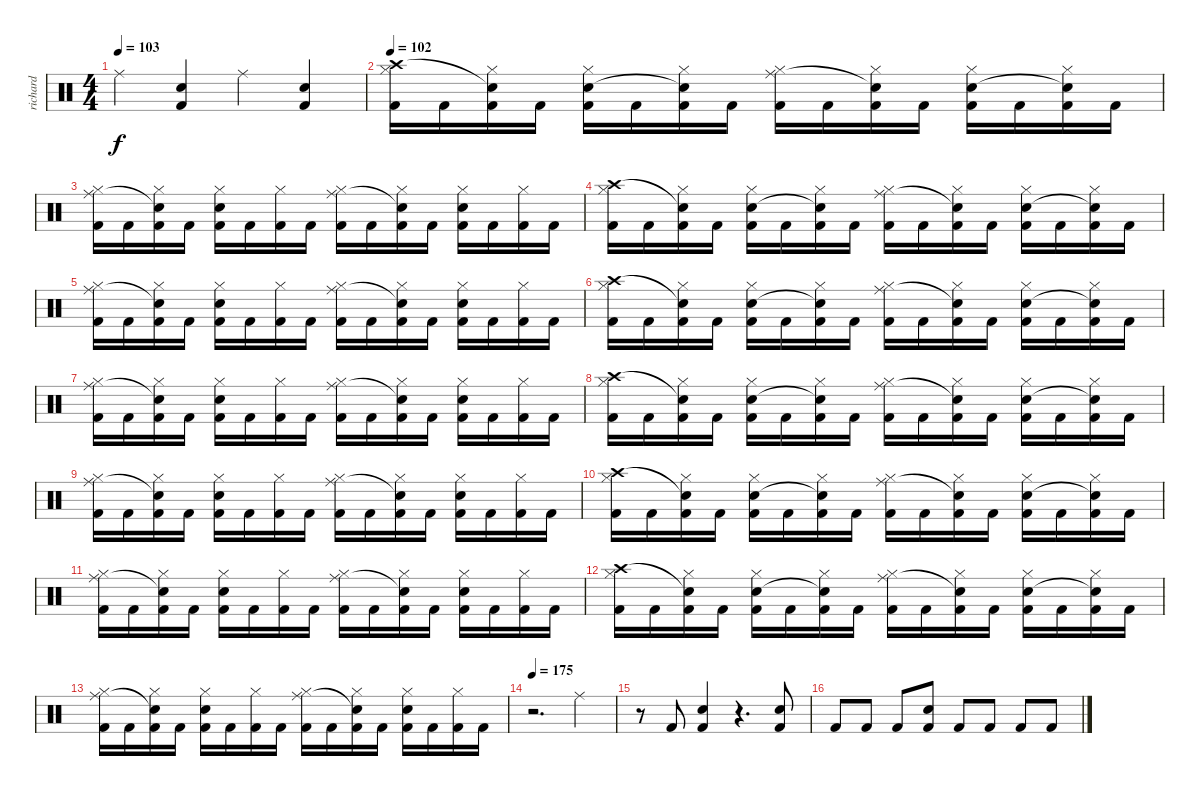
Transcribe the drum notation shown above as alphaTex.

\track ("richard" "richard") {instrument percussion}
\staff {score}
\articulation defaults
\ts (4 4)
\tempo 103
\clef neutral
\ks c "Ride (middle)".4{dy f}
("Snare (hit) 2" "Kick (hit) 2").4 "Ride (middle)".4 ("Snare (hit) 2" "Kick (hit) 2").4 |
\tempo 102
("Hi-Hat (closed)" "Crash high (hit)" "Kick (hit) 2").16 "Kick (hit) 2".16 ("Hi-Hat (closed)" "Snare (hit)"{t} "Kick (hit) 2").16 "Kick (hit) 2".16 ("Hi-Hat (closed)" "Snare (hit) 2" "Kick (hit) 2").16 "Kick (hit) 2".16 ("Hi-Hat (closed)" "Snare (hit)"{t} "Kick (hit) 2").16 "Kick (hit) 2".16 ("Hi-Hat (closed)" "Ride (middle)" "Kick (hit) 2").16 "Kick (hit) 2".16 ("Hi-Hat (closed)" "Snare (hit)"{t} "Kick (hit) 2").16 "Kick (hit) 2".16 ("Hi-Hat (closed)" "Snare (hit) 2" "Kick (hit) 2").16 "Kick (hit) 2".16 ("Hi-Hat (closed)" "Snare (hit)"{t} "Kick (hit) 2").16 "Kick (hit) 2".16 |
("Hi-Hat (closed)" "Ride (middle)" "Kick (hit) 2").16 "Kick (hit) 2".16 ("Hi-Hat (closed)" "Snare (hit)"{t} "Kick (hit) 2").16 "Kick (hit) 2".16 ("Hi-Hat (closed)" "Snare (hit) 2" "Kick (hit) 2").16 "Kick (hit) 2".16 ("Hi-Hat (closed)" "Kick (hit) 2").16 "Kick (hit) 2".16 ("Hi-Hat (closed)" "Ride (middle)" "Kick (hit) 2").16 "Kick (hit) 2".16 ("Hi-Hat (closed)" "Snare (hit)"{t} "Kick (hit) 2").16 "Kick (hit) 2".16 ("Hi-Hat (closed)" "Snare (hit) 2" "Kick (hit) 2").16 "Kick (hit) 2".16 ("Hi-Hat (closed)" "Kick (hit) 2").16 "Kick (hit) 2".16 |
("Hi-Hat (closed)" "Crash high (hit)" "Kick (hit) 2").16 "Kick (hit) 2".16 ("Hi-Hat (closed)" "Snare (hit)"{t} "Kick (hit) 2").16 "Kick (hit) 2".16 ("Hi-Hat (closed)" "Snare (hit) 2" "Kick (hit) 2").16 "Kick (hit) 2".16 ("Hi-Hat (closed)" "Snare (hit)"{t} "Kick (hit) 2").16 "Kick (hit) 2".16 ("Hi-Hat (closed)" "Ride (middle)" "Kick (hit) 2").16 "Kick (hit) 2".16 ("Hi-Hat (closed)" "Snare (hit)"{t} "Kick (hit) 2").16 "Kick (hit) 2".16 ("Hi-Hat (closed)" "Snare (hit) 2" "Kick (hit) 2").16 "Kick (hit) 2".16 ("Hi-Hat (closed)" "Snare (hit)"{t} "Kick (hit) 2").16 "Kick (hit) 2".16 |
("Hi-Hat (closed)" "Ride (middle)" "Kick (hit) 2").16 "Kick (hit) 2".16 ("Hi-Hat (closed)" "Snare (hit)"{t} "Kick (hit) 2").16 "Kick (hit) 2".16 ("Hi-Hat (closed)" "Snare (hit) 2" "Kick (hit) 2").16 "Kick (hit) 2".16 ("Hi-Hat (closed)" "Kick (hit) 2").16 "Kick (hit) 2".16 ("Hi-Hat (closed)" "Ride (middle)" "Kick (hit) 2").16 "Kick (hit) 2".16 ("Hi-Hat (closed)" "Snare (hit)"{t} "Kick (hit) 2").16 "Kick (hit) 2".16 ("Hi-Hat (closed)" "Snare (hit) 2" "Kick (hit) 2").16 "Kick (hit) 2".16 ("Hi-Hat (closed)" "Kick (hit) 2").16 "Kick (hit) 2".16 |
("Hi-Hat (closed)" "Crash high (hit)" "Kick (hit) 2").16 "Kick (hit) 2".16 ("Hi-Hat (closed)" "Snare (hit)"{t} "Kick (hit) 2").16 "Kick (hit) 2".16 ("Hi-Hat (closed)" "Snare (hit) 2" "Kick (hit) 2").16 "Kick (hit) 2".16 ("Hi-Hat (closed)" "Snare (hit)"{t} "Kick (hit) 2").16 "Kick (hit) 2".16 ("Hi-Hat (closed)" "Ride (middle)" "Kick (hit) 2").16 "Kick (hit) 2".16 ("Hi-Hat (closed)" "Snare (hit)"{t} "Kick (hit) 2").16 "Kick (hit) 2".16 ("Hi-Hat (closed)" "Snare (hit) 2" "Kick (hit) 2").16 "Kick (hit) 2".16 ("Hi-Hat (closed)" "Snare (hit)"{t} "Kick (hit) 2").16 "Kick (hit) 2".16 |
("Hi-Hat (closed)" "Ride (middle)" "Kick (hit) 2").16 "Kick (hit) 2".16 ("Hi-Hat (closed)" "Snare (hit)"{t} "Kick (hit) 2").16 "Kick (hit) 2".16 ("Hi-Hat (closed)" "Snare (hit) 2" "Kick (hit) 2").16 "Kick (hit) 2".16 ("Hi-Hat (closed)" "Kick (hit) 2").16 "Kick (hit) 2".16 ("Hi-Hat (closed)" "Ride (middle)" "Kick (hit) 2").16 "Kick (hit) 2".16 ("Hi-Hat (closed)" "Snare (hit)"{t} "Kick (hit) 2").16 "Kick (hit) 2".16 ("Hi-Hat (closed)" "Snare (hit) 2" "Kick (hit) 2").16 "Kick (hit) 2".16 ("Hi-Hat (closed)" "Kick (hit) 2").16 "Kick (hit) 2".16 |
("Hi-Hat (closed)" "Crash high (hit)" "Kick (hit) 2").16 "Kick (hit) 2".16 ("Hi-Hat (closed)" "Snare (hit)"{t} "Kick (hit) 2").16 "Kick (hit) 2".16 ("Hi-Hat (closed)" "Snare (hit) 2" "Kick (hit) 2").16 "Kick (hit) 2".16 ("Hi-Hat (closed)" "Snare (hit)"{t} "Kick (hit) 2").16 "Kick (hit) 2".16 ("Hi-Hat (closed)" "Ride (middle)" "Kick (hit) 2").16 "Kick (hit) 2".16 ("Hi-Hat (closed)" "Snare (hit)"{t} "Kick (hit) 2").16 "Kick (hit) 2".16 ("Hi-Hat (closed)" "Snare (hit) 2" "Kick (hit) 2").16 "Kick (hit) 2".16 ("Hi-Hat (closed)" "Snare (hit)"{t} "Kick (hit) 2").16 "Kick (hit) 2".16 |
("Hi-Hat (closed)" "Ride (middle)" "Kick (hit) 2").16 "Kick (hit) 2".16 ("Hi-Hat (closed)" "Snare (hit)"{t} "Kick (hit) 2").16 "Kick (hit) 2".16 ("Hi-Hat (closed)" "Snare (hit) 2" "Kick (hit) 2").16 "Kick (hit) 2".16 ("Hi-Hat (closed)" "Kick (hit) 2").16 "Kick (hit) 2".16 ("Hi-Hat (closed)" "Ride (middle)" "Kick (hit) 2").16 "Kick (hit) 2".16 ("Hi-Hat (closed)" "Snare (hit)"{t} "Kick (hit) 2").16 "Kick (hit) 2".16 ("Hi-Hat (closed)" "Snare (hit) 2" "Kick (hit) 2").16 "Kick (hit) 2".16 ("Hi-Hat (closed)" "Kick (hit) 2").16 "Kick (hit) 2".16 |
("Hi-Hat (closed)" "Crash high (hit)" "Kick (hit) 2").16 "Kick (hit) 2".16 ("Hi-Hat (closed)" "Snare (hit)"{t} "Kick (hit) 2").16 "Kick (hit) 2".16 ("Hi-Hat (closed)" "Snare (hit) 2" "Kick (hit) 2").16 "Kick (hit) 2".16 ("Hi-Hat (closed)" "Snare (hit)"{t} "Kick (hit) 2").16 "Kick (hit) 2".16 ("Hi-Hat (closed)" "Ride (middle)" "Kick (hit) 2").16 "Kick (hit) 2".16 ("Hi-Hat (closed)" "Snare (hit)"{t} "Kick (hit) 2").16 "Kick (hit) 2".16 ("Hi-Hat (closed)" "Snare (hit) 2" "Kick (hit) 2").16 "Kick (hit) 2".16 ("Hi-Hat (closed)" "Snare (hit)"{t} "Kick (hit) 2").16 "Kick (hit) 2".16 |
("Hi-Hat (closed)" "Ride (middle)" "Kick (hit) 2").16 "Kick (hit) 2".16 ("Hi-Hat (closed)" "Snare (hit)"{t} "Kick (hit) 2").16 "Kick (hit) 2".16 ("Hi-Hat (closed)" "Snare (hit) 2" "Kick (hit) 2").16 "Kick (hit) 2".16 ("Hi-Hat (closed)" "Kick (hit) 2").16 "Kick (hit) 2".16 ("Hi-Hat (closed)" "Ride (middle)" "Kick (hit) 2").16 "Kick (hit) 2".16 ("Hi-Hat (closed)" "Snare (hit)"{t} "Kick (hit) 2").16 "Kick (hit) 2".16 ("Hi-Hat (closed)" "Snare (hit) 2" "Kick (hit) 2").16 "Kick (hit) 2".16 ("Hi-Hat (closed)" "Kick (hit) 2").16 "Kick (hit) 2".16 |
("Hi-Hat (closed)" "Crash high (hit)" "Kick (hit) 2").16 "Kick (hit) 2".16 ("Hi-Hat (closed)" "Snare (hit)"{t} "Kick (hit) 2").16 "Kick (hit) 2".16 ("Hi-Hat (closed)" "Snare (hit) 2" "Kick (hit) 2").16 "Kick (hit) 2".16 ("Hi-Hat (closed)" "Snare (hit)"{t} "Kick (hit) 2").16 "Kick (hit) 2".16 ("Hi-Hat (closed)" "Ride (middle)" "Kick (hit) 2").16 "Kick (hit) 2".16 ("Hi-Hat (closed)" "Snare (hit)"{t} "Kick (hit) 2").16 "Kick (hit) 2".16 ("Hi-Hat (closed)" "Snare (hit) 2" "Kick (hit) 2").16 "Kick (hit) 2".16 ("Hi-Hat (closed)" "Snare (hit)"{t} "Kick (hit) 2").16 "Kick (hit) 2".16 |
("Hi-Hat (closed)" "Ride (middle)" "Kick (hit) 2").16 "Kick (hit) 2".16 ("Hi-Hat (closed)" "Snare (hit)"{t} "Kick (hit) 2").16 "Kick (hit) 2".16 ("Hi-Hat (closed)" "Snare (hit) 2" "Kick (hit) 2").16 "Kick (hit) 2".16 ("Hi-Hat (closed)" "Kick (hit) 2").16 "Kick (hit) 2".16 ("Hi-Hat (closed)" "Ride (middle)" "Kick (hit) 2").16 "Kick (hit) 2".16 ("Hi-Hat (closed)" "Snare (hit)"{t} "Kick (hit) 2").16 "Kick (hit) 2".16 ("Hi-Hat (closed)" "Snare (hit) 2" "Kick (hit) 2").16 "Kick (hit) 2".16 ("Hi-Hat (closed)" "Kick (hit) 2").16 "Kick (hit) 2".16 |
\tempo 175
r.2{d} "Ride (middle)".4 |
r.8 "Kick (hit) 2".8 ("Snare (hit) 2" "Kick (hit) 2").4 r.4{d} ("Snare (hit) 2" "Kick (hit) 2").8 |
"Kick (hit) 2".8 "Kick (hit) 2".8 "Kick (hit) 2".8 ("Snare (hit) 2" "Kick (hit) 2").8 "Kick (hit) 2".8 "Kick (hit) 2".8 "Kick (hit) 2".8 "Kick (hit) 2".8
